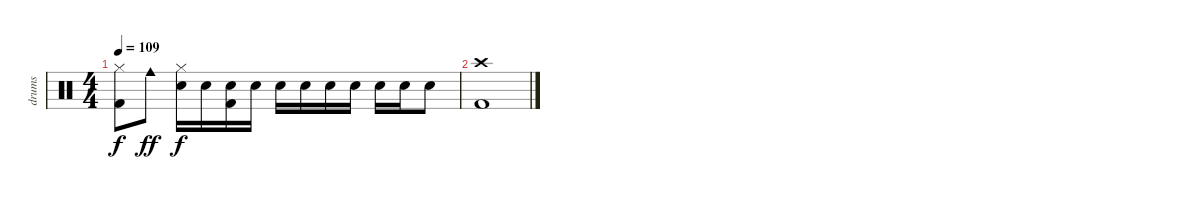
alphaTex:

\track ("drums" "drums") {instrument percussion}
\staff {score}
\articulation defaults
\ts (4 4)
\tempo 109
\clef neutral
\ks aminor
("Hi-Hat (closed)" "Kick (hit) 2").8{dy f} "Cowbell medium (hit)".8{dy ff} ("Hi-Hat (closed)" "Snare (hit) 2").16{dy f} "Snare (hit) 2".16 ("Snare (hit) 2" "Kick (hit) 2").16 "Snare (hit) 2".16 "Snare (hit) 2".16 "Snare (hit) 2".16 "Snare (hit) 2".16 "Snare (hit) 2".16 "Snare (hit) 2".16 "Snare (hit) 2".16 "Snare (hit) 2".8 |
("Crash high (hit)" "Kick (hit) 2").1
